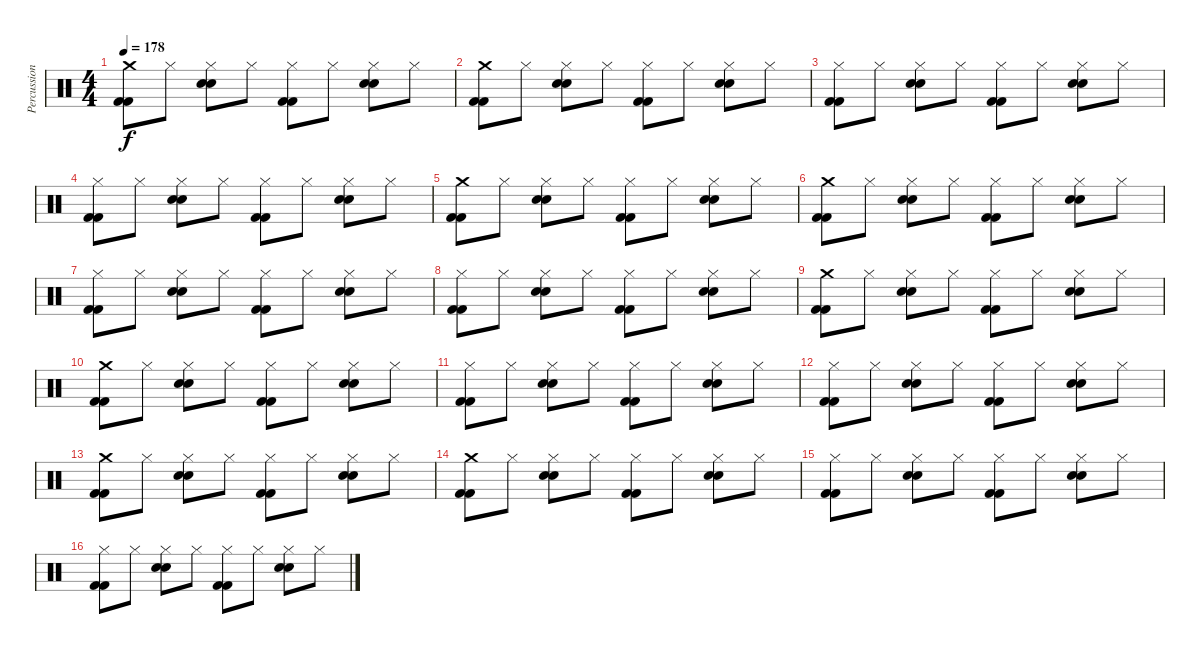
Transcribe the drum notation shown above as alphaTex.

\track ("Percussion" "Percussion") {instrument percussion}
\staff {score}
\articulation defaults
\ts (4 4)
\tempo 178
\clef neutral
\ks c
("Crash medium (hit)" "Kick (hit) 2" "Kick (hit) 2").8{dy f} "Hi-Hat (closed)".8 ("Hi-Hat (closed)" "Snare (hit) 2" "Snare (hit) 2").8 "Hi-Hat (closed)".8 ("Hi-Hat (closed)" "Kick (hit) 2" "Kick (hit) 2").8 "Hi-Hat (closed)".8 ("Hi-Hat (closed)" "Snare (hit) 2" "Snare (hit) 2").8 "Hi-Hat (closed)".8 |
("Crash medium (hit)" "Kick (hit) 2" "Kick (hit) 2").8 "Hi-Hat (closed)".8 ("Hi-Hat (closed)" "Snare (hit) 2" "Snare (hit) 2").8 "Hi-Hat (closed)".8 ("Hi-Hat (closed)" "Kick (hit) 2" "Kick (hit) 2").8 "Hi-Hat (closed)".8 ("Hi-Hat (closed)" "Snare (hit) 2" "Snare (hit) 2").8 "Hi-Hat (closed)".8 |
("Hi-Hat (closed)" "Kick (hit) 2" "Kick (hit) 2").8 "Hi-Hat (closed)".8 ("Hi-Hat (closed)" "Snare (hit) 2" "Snare (hit) 2").8 "Hi-Hat (closed)".8 ("Hi-Hat (closed)" "Kick (hit) 2" "Kick (hit) 2").8 "Hi-Hat (closed)".8 ("Hi-Hat (closed)" "Snare (hit) 2" "Snare (hit) 2").8 "Hi-Hat (closed)".8 |
("Hi-Hat (closed)" "Kick (hit) 2" "Kick (hit) 2").8 "Hi-Hat (closed)".8 ("Hi-Hat (closed)" "Snare (hit) 2" "Snare (hit) 2").8 "Hi-Hat (closed)".8 ("Hi-Hat (closed)" "Kick (hit) 2" "Kick (hit) 2").8 "Hi-Hat (closed)".8 ("Hi-Hat (closed)" "Snare (hit) 2" "Snare (hit) 2").8 "Hi-Hat (closed)".8 |
("Crash medium (hit)" "Kick (hit) 2" "Kick (hit) 2").8 "Hi-Hat (closed)".8 ("Hi-Hat (closed)" "Snare (hit) 2" "Snare (hit) 2").8 "Hi-Hat (closed)".8 ("Hi-Hat (closed)" "Kick (hit) 2" "Kick (hit) 2").8 "Hi-Hat (closed)".8 ("Hi-Hat (closed)" "Snare (hit) 2" "Snare (hit) 2").8 "Hi-Hat (closed)".8 |
("Crash medium (hit)" "Kick (hit) 2" "Kick (hit) 2").8 "Hi-Hat (closed)".8 ("Hi-Hat (closed)" "Snare (hit) 2" "Snare (hit) 2").8 "Hi-Hat (closed)".8 ("Hi-Hat (closed)" "Kick (hit) 2" "Kick (hit) 2").8 "Hi-Hat (closed)".8 ("Hi-Hat (closed)" "Snare (hit) 2" "Snare (hit) 2").8 "Hi-Hat (closed)".8 |
("Hi-Hat (closed)" "Kick (hit) 2" "Kick (hit) 2").8 "Hi-Hat (closed)".8 ("Hi-Hat (closed)" "Snare (hit) 2" "Snare (hit) 2").8 "Hi-Hat (closed)".8 ("Hi-Hat (closed)" "Kick (hit) 2" "Kick (hit) 2").8 "Hi-Hat (closed)".8 ("Hi-Hat (closed)" "Snare (hit) 2" "Snare (hit) 2").8 "Hi-Hat (closed)".8 |
("Hi-Hat (closed)" "Kick (hit) 2" "Kick (hit) 2").8 "Hi-Hat (closed)".8 ("Hi-Hat (closed)" "Snare (hit) 2" "Snare (hit) 2").8 "Hi-Hat (closed)".8 ("Hi-Hat (closed)" "Kick (hit) 2" "Kick (hit) 2").8 "Hi-Hat (closed)".8 ("Hi-Hat (closed)" "Snare (hit) 2" "Snare (hit) 2").8 "Hi-Hat (closed)".8 |
("Crash medium (hit)" "Kick (hit) 2" "Kick (hit) 2").8 "Hi-Hat (closed)".8 ("Hi-Hat (closed)" "Snare (hit) 2" "Snare (hit) 2").8 "Hi-Hat (closed)".8 ("Hi-Hat (closed)" "Kick (hit) 2" "Kick (hit) 2").8 "Hi-Hat (closed)".8 ("Hi-Hat (closed)" "Snare (hit) 2" "Snare (hit) 2").8 "Hi-Hat (closed)".8 |
("Crash medium (hit)" "Kick (hit) 2" "Kick (hit) 2").8 "Hi-Hat (closed)".8 ("Hi-Hat (closed)" "Snare (hit) 2" "Snare (hit) 2").8 "Hi-Hat (closed)".8 ("Hi-Hat (closed)" "Kick (hit) 2" "Kick (hit) 2").8 "Hi-Hat (closed)".8 ("Hi-Hat (closed)" "Snare (hit) 2" "Snare (hit) 2").8 "Hi-Hat (closed)".8 |
("Hi-Hat (closed)" "Kick (hit) 2" "Kick (hit) 2").8 "Hi-Hat (closed)".8 ("Hi-Hat (closed)" "Snare (hit) 2" "Snare (hit) 2").8 "Hi-Hat (closed)".8 ("Hi-Hat (closed)" "Kick (hit) 2" "Kick (hit) 2").8 "Hi-Hat (closed)".8 ("Hi-Hat (closed)" "Snare (hit) 2" "Snare (hit) 2").8 "Hi-Hat (closed)".8 |
("Hi-Hat (closed)" "Kick (hit) 2" "Kick (hit) 2").8 "Hi-Hat (closed)".8 ("Hi-Hat (closed)" "Snare (hit) 2" "Snare (hit) 2").8 "Hi-Hat (closed)".8 ("Hi-Hat (closed)" "Kick (hit) 2" "Kick (hit) 2").8 "Hi-Hat (closed)".8 ("Hi-Hat (closed)" "Snare (hit) 2" "Snare (hit) 2").8 "Hi-Hat (closed)".8 |
("Crash medium (hit)" "Kick (hit) 2" "Kick (hit) 2").8 "Hi-Hat (closed)".8 ("Hi-Hat (closed)" "Snare (hit) 2" "Snare (hit) 2").8 "Hi-Hat (closed)".8 ("Hi-Hat (closed)" "Kick (hit) 2" "Kick (hit) 2").8 "Hi-Hat (closed)".8 ("Hi-Hat (closed)" "Snare (hit) 2" "Snare (hit) 2").8 "Hi-Hat (closed)".8 |
("Crash medium (hit)" "Kick (hit) 2" "Kick (hit) 2").8 "Hi-Hat (closed)".8 ("Hi-Hat (closed)" "Snare (hit) 2" "Snare (hit) 2").8 "Hi-Hat (closed)".8 ("Hi-Hat (closed)" "Kick (hit) 2" "Kick (hit) 2").8 "Hi-Hat (closed)".8 ("Hi-Hat (closed)" "Snare (hit) 2" "Snare (hit) 2").8 "Hi-Hat (closed)".8 |
("Hi-Hat (closed)" "Kick (hit) 2" "Kick (hit) 2").8 "Hi-Hat (closed)".8 ("Hi-Hat (closed)" "Snare (hit) 2" "Snare (hit) 2").8 "Hi-Hat (closed)".8 ("Hi-Hat (closed)" "Kick (hit) 2" "Kick (hit) 2").8 "Hi-Hat (closed)".8 ("Hi-Hat (closed)" "Snare (hit) 2" "Snare (hit) 2").8 "Hi-Hat (closed)".8 |
("Hi-Hat (closed)" "Kick (hit) 2" "Kick (hit) 2").8 "Hi-Hat (closed)".8 ("Hi-Hat (closed)" "Snare (hit) 2" "Snare (hit) 2").8 "Hi-Hat (closed)".8 ("Hi-Hat (closed)" "Kick (hit) 2" "Kick (hit) 2").8 "Hi-Hat (closed)".8 ("Hi-Hat (closed)" "Snare (hit) 2" "Snare (hit) 2").8 "Hi-Hat (closed)".8
